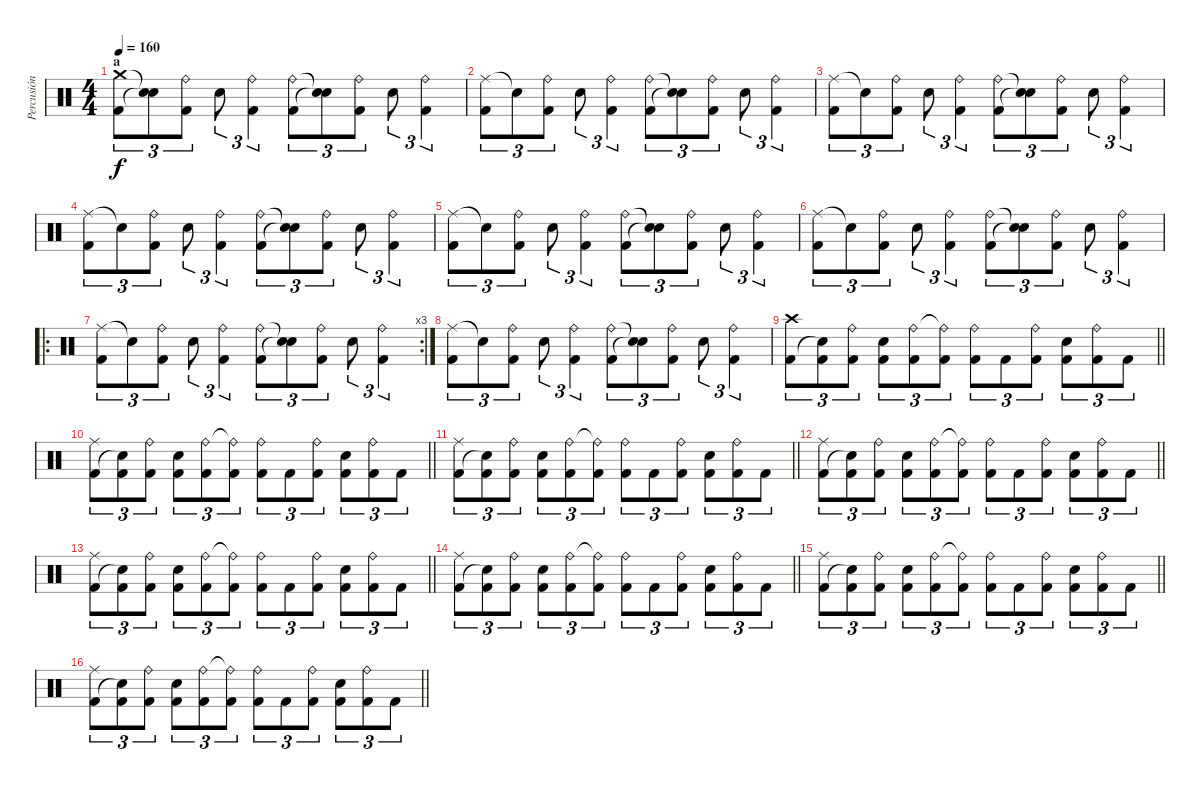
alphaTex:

\track ("Percusión" "Percusión") {instrument percussion}
\staff {score}
\articulation defaults
\ts (4 4)
\section ("" "a")
\tempo 160
\clef neutral
\ks c
("Crash medium (hit)" "Kick (hit) 2").8{tu (3 2) dy f} ("Snare (hit)"{t} "Snare (hit)"{t}).8{tu (3 2)} ("Ride (bell)" "Kick (hit) 2").8{tu (3 2)} "Snare (hit) 2".8{tu (3 2)} ("Ride (bell)" "Kick (hit) 2").4{tu (3 2)} ("Ride (bell)" "Kick (hit) 2").8{tu (3 2)} ("Snare (hit)"{t} "Snare (hit)"{t}).8{tu (3 2)} ("Ride (bell)" "Kick (hit) 2").8{tu (3 2)} "Snare (hit) 2".8{tu (3 2)} ("Ride (bell)" "Kick (hit) 2").4{tu (3 2)} |
("Ride (middle)" "Kick (hit) 2").8{tu (3 2)} "Snare (hit)"{t}.8{tu (3 2)} ("Ride (bell)" "Kick (hit) 2").8{tu (3 2)} "Snare (hit) 2".8{tu (3 2)} ("Ride (bell)" "Kick (hit) 2").4{tu (3 2)} ("Ride (bell)" "Kick (hit) 2").8{tu (3 2)} ("Snare (hit)"{t} "Snare (hit)"{t}).8{tu (3 2)} ("Ride (bell)" "Kick (hit) 2").8{tu (3 2)} "Snare (hit) 2".8{tu (3 2)} ("Ride (bell)" "Kick (hit) 2").4{tu (3 2)} |
("Ride (middle)" "Kick (hit) 2").8{tu (3 2)} "Snare (hit)"{t}.8{tu (3 2)} ("Ride (bell)" "Kick (hit) 2").8{tu (3 2)} "Snare (hit) 2".8{tu (3 2)} ("Ride (bell)" "Kick (hit) 2").4{tu (3 2)} ("Ride (bell)" "Kick (hit) 2").8{tu (3 2)} ("Snare (hit)"{t} "Snare (hit)"{t}).8{tu (3 2)} ("Ride (bell)" "Kick (hit) 2").8{tu (3 2)} "Snare (hit) 2".8{tu (3 2)} ("Ride (bell)" "Kick (hit) 2").4{tu (3 2)} |
("Ride (middle)" "Kick (hit) 2").8{tu (3 2)} "Snare (hit)"{t}.8{tu (3 2)} ("Ride (bell)" "Kick (hit) 2").8{tu (3 2)} "Snare (hit) 2".8{tu (3 2)} ("Ride (bell)" "Kick (hit) 2").4{tu (3 2)} ("Ride (bell)" "Kick (hit) 2").8{tu (3 2)} ("Snare (hit)"{t} "Snare (hit)"{t}).8{tu (3 2)} ("Ride (bell)" "Kick (hit) 2").8{tu (3 2)} "Snare (hit) 2".8{tu (3 2)} ("Ride (bell)" "Kick (hit) 2").4{tu (3 2)} |
("Ride (middle)" "Kick (hit) 2").8{tu (3 2)} "Snare (hit)"{t}.8{tu (3 2)} ("Ride (bell)" "Kick (hit) 2").8{tu (3 2)} "Snare (hit) 2".8{tu (3 2)} ("Ride (bell)" "Kick (hit) 2").4{tu (3 2)} ("Ride (bell)" "Kick (hit) 2").8{tu (3 2)} ("Snare (hit)"{t} "Snare (hit)"{t}).8{tu (3 2)} ("Ride (bell)" "Kick (hit) 2").8{tu (3 2)} "Snare (hit) 2".8{tu (3 2)} ("Ride (bell)" "Kick (hit) 2").4{tu (3 2)} |
("Ride (middle)" "Kick (hit) 2").8{tu (3 2)} "Snare (hit)"{t}.8{tu (3 2)} ("Ride (bell)" "Kick (hit) 2").8{tu (3 2)} "Snare (hit) 2".8{tu (3 2)} ("Ride (bell)" "Kick (hit) 2").4{tu (3 2)} ("Ride (bell)" "Kick (hit) 2").8{tu (3 2)} ("Snare (hit)"{t} "Snare (hit)"{t}).8{tu (3 2)} ("Ride (bell)" "Kick (hit) 2").8{tu (3 2)} "Snare (hit) 2".8{tu (3 2)} ("Ride (bell)" "Kick (hit) 2").4{tu (3 2)} |
\ro
\rc 3
("Ride (middle)" "Kick (hit) 2").8{tu (3 2)} "Snare (hit)"{t}.8{tu (3 2)} ("Ride (bell)" "Kick (hit) 2").8{tu (3 2)} "Snare (hit) 2".8{tu (3 2)} ("Ride (bell)" "Kick (hit) 2").4{tu (3 2)} ("Ride (bell)" "Kick (hit) 2").8{tu (3 2)} ("Snare (hit)"{t} "Snare (hit)"{t}).8{tu (3 2)} ("Ride (bell)" "Kick (hit) 2").8{tu (3 2)} "Snare (hit) 2".8{tu (3 2)} ("Ride (bell)" "Kick (hit) 2").4{tu (3 2)} |
("Ride (middle)" "Kick (hit) 2").8{tu (3 2)} "Snare (hit)"{t}.8{tu (3 2)} ("Ride (bell)" "Kick (hit) 2").8{tu (3 2)} "Snare (hit) 2".8{tu (3 2)} ("Ride (bell)" "Kick (hit) 2").4{tu (3 2)} ("Ride (bell)" "Kick (hit) 2").8{tu (3 2)} ("Snare (hit)"{t} "Snare (hit)"{t}).8{tu (3 2)} ("Ride (bell)" "Kick (hit) 2").8{tu (3 2)} "Snare (hit) 2".8{tu (3 2)} ("Ride (bell)" "Kick (hit) 2").4{tu (3 2)} |
\barLineRight lightlight
("Crash high (hit)" "Kick (hit) 2").8{tu (3 2)} ("Kick (hit) 2" "Snare (hit)"{t}).8{tu (3 2)} ("Ride (bell)" "Kick (hit) 2").8{tu (3 2)} ("Snare (hit) 2" "Kick (hit) 2").8{tu (3 2)} ("Ride (bell)" "Kick (hit) 2").8{tu (3 2)} ("Ride (bell)"{t} "Kick (hit) 2").8{tu (3 2)} ("Kick (hit) 2" "Ride (bell)").8{tu (3 2)} "Kick (hit) 2".8{tu (3 2)} ("Ride (bell)" "Kick (hit) 2").8{tu (3 2)} ("Kick (hit) 2" "Snare (hit) 2").8{tu (3 2)} ("Kick (hit) 2" "Ride (bell)").8{tu (3 2)} "Kick (hit) 2".8{tu (3 2)} |
\barLineRight lightlight
("Ride (middle)" "Kick (hit) 2").8{tu (3 2)} ("Kick (hit) 2" "Snare (hit)"{t}).8{tu (3 2)} ("Ride (bell)" "Kick (hit) 2").8{tu (3 2)} ("Snare (hit) 2" "Kick (hit) 2").8{tu (3 2)} ("Ride (bell)" "Kick (hit) 2").8{tu (3 2)} ("Ride (bell)"{t} "Kick (hit) 2").8{tu (3 2)} ("Kick (hit) 2" "Ride (bell)").8{tu (3 2)} "Kick (hit) 2".8{tu (3 2)} ("Ride (bell)" "Kick (hit) 2").8{tu (3 2)} ("Kick (hit) 2" "Snare (hit) 2").8{tu (3 2)} ("Kick (hit) 2" "Ride (bell)").8{tu (3 2)} "Kick (hit) 2".8{tu (3 2)} |
\barLineRight lightlight
("Ride (middle)" "Kick (hit) 2").8{tu (3 2)} ("Kick (hit) 2" "Snare (hit)"{t}).8{tu (3 2)} ("Ride (bell)" "Kick (hit) 2").8{tu (3 2)} ("Snare (hit) 2" "Kick (hit) 2").8{tu (3 2)} ("Ride (bell)" "Kick (hit) 2").8{tu (3 2)} ("Ride (bell)"{t} "Kick (hit) 2").8{tu (3 2)} ("Kick (hit) 2" "Ride (bell)").8{tu (3 2)} "Kick (hit) 2".8{tu (3 2)} ("Ride (bell)" "Kick (hit) 2").8{tu (3 2)} ("Kick (hit) 2" "Snare (hit) 2").8{tu (3 2)} ("Kick (hit) 2" "Ride (bell)").8{tu (3 2)} "Kick (hit) 2".8{tu (3 2)} |
\barLineRight lightlight
("Ride (middle)" "Kick (hit) 2").8{tu (3 2)} ("Kick (hit) 2" "Snare (hit)"{t}).8{tu (3 2)} ("Ride (bell)" "Kick (hit) 2").8{tu (3 2)} ("Snare (hit) 2" "Kick (hit) 2").8{tu (3 2)} ("Ride (bell)" "Kick (hit) 2").8{tu (3 2)} ("Ride (bell)"{t} "Kick (hit) 2").8{tu (3 2)} ("Kick (hit) 2" "Ride (bell)").8{tu (3 2)} "Kick (hit) 2".8{tu (3 2)} ("Ride (bell)" "Kick (hit) 2").8{tu (3 2)} ("Kick (hit) 2" "Snare (hit) 2").8{tu (3 2)} ("Kick (hit) 2" "Ride (bell)").8{tu (3 2)} "Kick (hit) 2".8{tu (3 2)} |
\barLineRight lightlight
("Ride (middle)" "Kick (hit) 2").8{tu (3 2)} ("Kick (hit) 2" "Snare (hit)"{t}).8{tu (3 2)} ("Ride (bell)" "Kick (hit) 2").8{tu (3 2)} ("Snare (hit) 2" "Kick (hit) 2").8{tu (3 2)} ("Ride (bell)" "Kick (hit) 2").8{tu (3 2)} ("Ride (bell)"{t} "Kick (hit) 2").8{tu (3 2)} ("Kick (hit) 2" "Ride (bell)").8{tu (3 2)} "Kick (hit) 2".8{tu (3 2)} ("Ride (bell)" "Kick (hit) 2").8{tu (3 2)} ("Kick (hit) 2" "Snare (hit) 2").8{tu (3 2)} ("Kick (hit) 2" "Ride (bell)").8{tu (3 2)} "Kick (hit) 2".8{tu (3 2)} |
\barLineRight lightlight
("Ride (middle)" "Kick (hit) 2").8{tu (3 2)} ("Kick (hit) 2" "Snare (hit)"{t}).8{tu (3 2)} ("Ride (bell)" "Kick (hit) 2").8{tu (3 2)} ("Snare (hit) 2" "Kick (hit) 2").8{tu (3 2)} ("Ride (bell)" "Kick (hit) 2").8{tu (3 2)} ("Ride (bell)"{t} "Kick (hit) 2").8{tu (3 2)} ("Kick (hit) 2" "Ride (bell)").8{tu (3 2)} "Kick (hit) 2".8{tu (3 2)} ("Ride (bell)" "Kick (hit) 2").8{tu (3 2)} ("Kick (hit) 2" "Snare (hit) 2").8{tu (3 2)} ("Kick (hit) 2" "Ride (bell)").8{tu (3 2)} "Kick (hit) 2".8{tu (3 2)} |
\barLineRight lightlight
("Ride (middle)" "Kick (hit) 2").8{tu (3 2)} ("Kick (hit) 2" "Snare (hit)"{t}).8{tu (3 2)} ("Ride (bell)" "Kick (hit) 2").8{tu (3 2)} ("Snare (hit) 2" "Kick (hit) 2").8{tu (3 2)} ("Ride (bell)" "Kick (hit) 2").8{tu (3 2)} ("Ride (bell)"{t} "Kick (hit) 2").8{tu (3 2)} ("Kick (hit) 2" "Ride (bell)").8{tu (3 2)} "Kick (hit) 2".8{tu (3 2)} ("Ride (bell)" "Kick (hit) 2").8{tu (3 2)} ("Kick (hit) 2" "Snare (hit) 2").8{tu (3 2)} ("Kick (hit) 2" "Ride (bell)").8{tu (3 2)} "Kick (hit) 2".8{tu (3 2)} |
\barLineRight lightlight
("Ride (middle)" "Kick (hit) 2").8{tu (3 2)} ("Kick (hit) 2" "Snare (hit)"{t}).8{tu (3 2)} ("Ride (bell)" "Kick (hit) 2").8{tu (3 2)} ("Snare (hit) 2" "Kick (hit) 2").8{tu (3 2)} ("Ride (bell)" "Kick (hit) 2").8{tu (3 2)} ("Ride (bell)"{t} "Kick (hit) 2").8{tu (3 2)} ("Kick (hit) 2" "Ride (bell)").8{tu (3 2)} "Kick (hit) 2".8{tu (3 2)} ("Ride (bell)" "Kick (hit) 2").8{tu (3 2)} ("Kick (hit) 2" "Snare (hit) 2").8{tu (3 2)} ("Kick (hit) 2" "Ride (bell)").8{tu (3 2)} "Kick (hit) 2".8{tu (3 2)}
